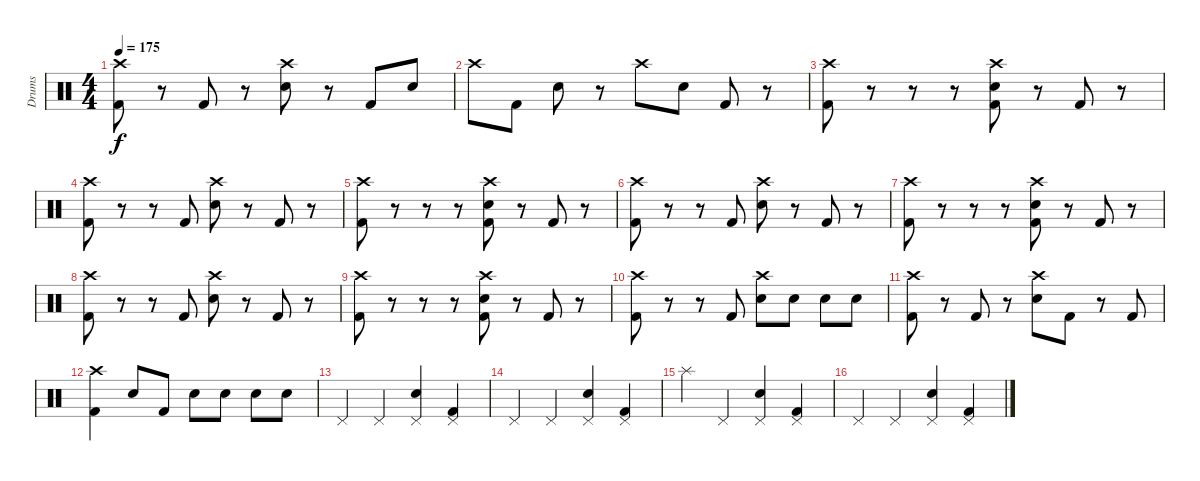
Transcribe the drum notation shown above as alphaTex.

\track ("Drums" "Drums") {instrument percussion}
\staff {score}
\articulation defaults
\ts (4 4)
\tempo 175
\clef neutral
\ks c
("Crash high (hit)" "Kick (hit) 2").8{dy f} r.8 "Kick (hit) 2".8 r.8 ("Crash high (hit)" "Electric Snare (hit)").8 r.8 "Kick (hit) 2".8 "Electric Snare (hit)".8 |
"Crash high (hit)".8 "Kick (hit) 2".8 "Electric Snare (hit)".8 r.8 "Crash high (hit)".8 "Electric Snare (hit)".8 "Kick (hit) 2".8 r.8 |
("Crash high (hit)" "Kick (hit) 2").8 r.8 r.8 r.8 ("Crash high (hit)" "Electric Snare (hit)" "Kick (hit) 2").8 r.8 "Kick (hit) 2".8 r.8 |
("Crash high (hit)" "Kick (hit) 2").8 r.8 r.8 "Kick (hit) 2".8 ("Crash high (hit)" "Electric Snare (hit)").8 r.8 "Kick (hit) 2".8 r.8 |
("Crash high (hit)" "Kick (hit) 2").8 r.8 r.8 r.8 ("Crash high (hit)" "Electric Snare (hit)" "Kick (hit) 2").8 r.8 "Kick (hit) 2".8 r.8 |
("Crash high (hit)" "Kick (hit) 2").8 r.8 r.8 "Kick (hit) 2".8 ("Crash high (hit)" "Electric Snare (hit)").8 r.8 "Kick (hit) 2".8 r.8 |
("Crash high (hit)" "Kick (hit) 2").8 r.8 r.8 r.8 ("Crash high (hit)" "Electric Snare (hit)" "Kick (hit) 2").8 r.8 "Kick (hit) 2".8 r.8 |
("Crash high (hit)" "Kick (hit) 2").8 r.8 r.8 "Kick (hit) 2".8 ("Crash high (hit)" "Electric Snare (hit)").8 r.8 "Kick (hit) 2".8 r.8 |
("Crash high (hit)" "Kick (hit) 2").8 r.8 r.8 r.8 ("Crash high (hit)" "Electric Snare (hit)" "Kick (hit) 2").8 r.8 "Kick (hit) 2".8 r.8 |
("Crash high (hit)" "Kick (hit) 2").8 r.8 r.8 "Kick (hit) 2".8 ("Crash high (hit)" "Electric Snare (hit)").8 "Electric Snare (hit)".8 "Electric Snare (hit)".8 "Electric Snare (hit)".8 |
("Crash high (hit)" "Kick (hit) 2").8 r.8 "Kick (hit) 2".8 r.8 ("Crash high (hit)" "Electric Snare (hit)").8 "Kick (hit) 2".8 r.8 "Kick (hit) 2".8 |
("Crash high (hit)" "Kick (hit) 2").4 "Electric Snare (hit)".8 "Kick (hit) 2".8 "Electric Snare (hit)".8 "Electric Snare (hit)".8 "Electric Snare (hit)".8 "Electric Snare (hit)".8 |
"Pedal Hi-Hat (hit)".4 "Pedal Hi-Hat (hit)".4 ("Pedal Hi-Hat (hit)" "Electric Snare (hit)").4 ("Pedal Hi-Hat (hit)" "Kick (hit) 2").4 |
"Pedal Hi-Hat (hit)".4 "Pedal Hi-Hat (hit)".4 ("Pedal Hi-Hat (hit)" "Electric Snare (hit)").4 ("Pedal Hi-Hat (hit)" "Kick (hit) 2").4 |
"Splash (hit)".4 "Pedal Hi-Hat (hit)".4 ("Pedal Hi-Hat (hit)" "Electric Snare (hit)").4 ("Pedal Hi-Hat (hit)" "Kick (hit) 2").4 |
"Pedal Hi-Hat (hit)".4 "Pedal Hi-Hat (hit)".4 ("Pedal Hi-Hat (hit)" "Electric Snare (hit)").4 ("Pedal Hi-Hat (hit)" "Kick (hit) 2").4
